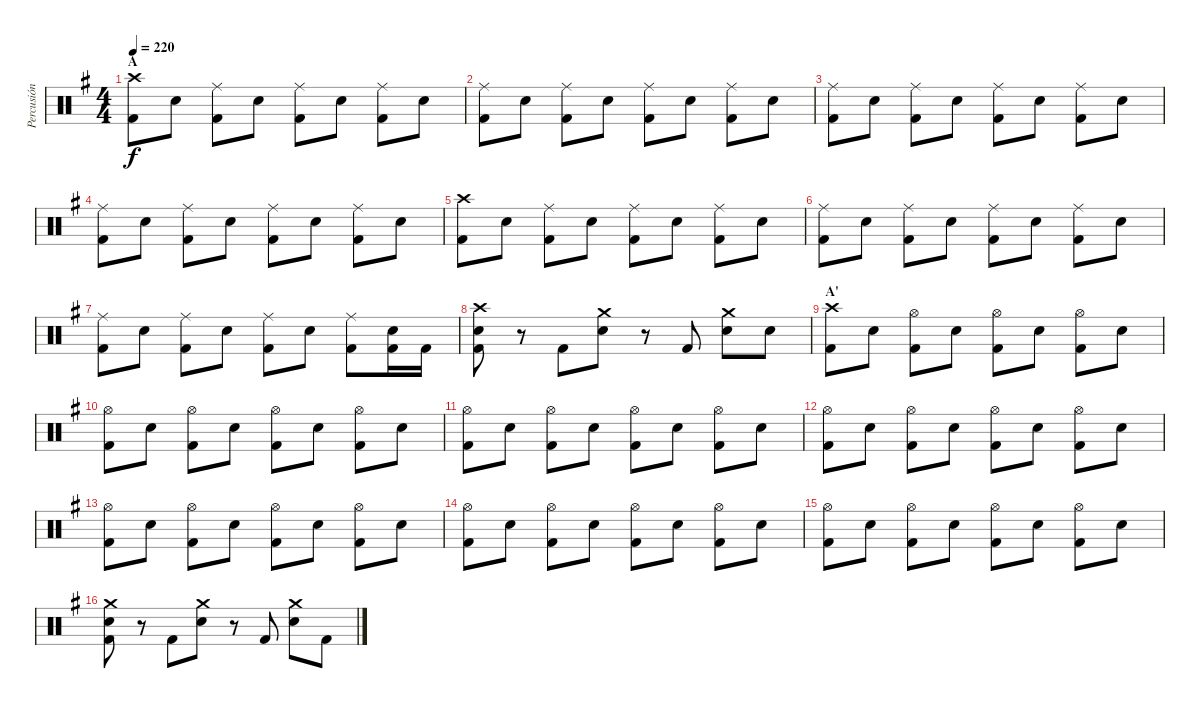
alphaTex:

\track ("Percusión" "Percusión") {instrument percussion}
\staff {score}
\articulation defaults
\ts (4 4)
\section ("" "A")
\tempo 220
\clef neutral
\ks g
("Crash high (hit)" "Kick (hit) 2").8{dy f} "Electric Snare (hit)".8 ("Ride (middle)" "Kick (hit) 2").8 "Electric Snare (hit)".8 ("Ride (middle)" "Kick (hit) 2").8 "Electric Snare (hit)".8 ("Ride (middle)" "Kick (hit) 2").8 "Electric Snare (hit)".8 |
("Ride (middle)" "Kick (hit) 2").8 "Electric Snare (hit)".8 ("Ride (middle)" "Kick (hit) 2").8 "Electric Snare (hit)".8 ("Ride (middle)" "Kick (hit) 2").8 "Electric Snare (hit)".8 ("Ride (middle)" "Kick (hit) 2").8 "Electric Snare (hit)".8 |
("Ride (middle)" "Kick (hit) 2").8 "Electric Snare (hit)".8 ("Ride (middle)" "Kick (hit) 2").8 "Electric Snare (hit)".8 ("Ride (middle)" "Kick (hit) 2").8 "Electric Snare (hit)".8 ("Ride (middle)" "Kick (hit) 2").8 "Electric Snare (hit)".8 |
("Ride (middle)" "Kick (hit) 2").8 "Electric Snare (hit)".8 ("Ride (middle)" "Kick (hit) 2").8 "Electric Snare (hit)".8 ("Ride (middle)" "Kick (hit) 2").8 "Electric Snare (hit)".8 ("Ride (middle)" "Kick (hit) 2").8 "Electric Snare (hit)".8 |
("Crash high (hit)" "Kick (hit) 2").8 "Electric Snare (hit)".8 ("Ride (middle)" "Kick (hit) 2").8 "Electric Snare (hit)".8 ("Ride (middle)" "Kick (hit) 2").8 "Electric Snare (hit)".8 ("Ride (middle)" "Kick (hit) 2").8 "Electric Snare (hit)".8 |
("Ride (middle)" "Kick (hit) 2").8 "Electric Snare (hit)".8 ("Ride (middle)" "Kick (hit) 2").8 "Electric Snare (hit)".8 ("Ride (middle)" "Kick (hit) 2").8 "Electric Snare (hit)".8 ("Ride (middle)" "Kick (hit) 2").8 "Electric Snare (hit)".8 |
("Ride (middle)" "Kick (hit) 2").8 "Electric Snare (hit)".8 ("Ride (middle)" "Kick (hit) 2").8 "Electric Snare (hit)".8 ("Ride (middle)" "Kick (hit) 2").8 "Electric Snare (hit)".8 ("Ride (middle)" "Kick (hit) 2").8 ("Electric Snare (hit)" "Kick (hit) 2").16 "Kick (hit) 2".16 |
("Crash high (hit)" "Electric Snare (hit)" "Kick (hit) 2").8 r.8 "Kick (hit) 2".8 ("Crash medium (hit)" "Electric Snare (hit)").8 r.8 "Kick (hit) 2".8 ("Crash medium (hit)" "Electric Snare (hit)").8 "Electric Snare (hit)".8 |
\section ("" "A'")
("Crash high (hit)" "Kick (hit) 2").8 "Electric Snare (hit)".8 ("Hi-Hat (open)" "Kick (hit) 2").8 "Electric Snare (hit)".8 ("Hi-Hat (open)" "Kick (hit) 2").8 "Electric Snare (hit)".8 ("Hi-Hat (open)" "Kick (hit) 2").8 "Electric Snare (hit)".8 |
("Hi-Hat (open)" "Kick (hit) 2").8 "Electric Snare (hit)".8 ("Hi-Hat (open)" "Kick (hit) 2").8 "Electric Snare (hit)".8 ("Hi-Hat (open)" "Kick (hit) 2").8 "Electric Snare (hit)".8 ("Hi-Hat (open)" "Kick (hit) 2").8 "Electric Snare (hit)".8 |
("Hi-Hat (open)" "Kick (hit) 2").8 "Electric Snare (hit)".8 ("Hi-Hat (open)" "Kick (hit) 2").8 "Electric Snare (hit)".8 ("Hi-Hat (open)" "Kick (hit) 2").8 "Electric Snare (hit)".8 ("Hi-Hat (open)" "Kick (hit) 2").8 "Electric Snare (hit)".8 |
("Hi-Hat (open)" "Kick (hit) 2").8 "Electric Snare (hit)".8 ("Hi-Hat (open)" "Kick (hit) 2").8 "Electric Snare (hit)".8 ("Hi-Hat (open)" "Kick (hit) 2").8 "Electric Snare (hit)".8 ("Hi-Hat (open)" "Kick (hit) 2").8 "Electric Snare (hit)".8 |
("Hi-Hat (open)" "Kick (hit) 2").8 "Electric Snare (hit)".8 ("Hi-Hat (open)" "Kick (hit) 2").8 "Electric Snare (hit)".8 ("Hi-Hat (open)" "Kick (hit) 2").8 "Electric Snare (hit)".8 ("Hi-Hat (open)" "Kick (hit) 2").8 "Electric Snare (hit)".8 |
("Hi-Hat (open)" "Kick (hit) 2").8 "Electric Snare (hit)".8 ("Hi-Hat (open)" "Kick (hit) 2").8 "Electric Snare (hit)".8 ("Hi-Hat (open)" "Kick (hit) 2").8 "Electric Snare (hit)".8 ("Hi-Hat (open)" "Kick (hit) 2").8 "Electric Snare (hit)".8 |
("Hi-Hat (open)" "Kick (hit) 2").8 "Electric Snare (hit)".8 ("Hi-Hat (open)" "Kick (hit) 2").8 "Electric Snare (hit)".8 ("Hi-Hat (open)" "Kick (hit) 2").8 "Electric Snare (hit)".8 ("Hi-Hat (open)" "Kick (hit) 2").8 "Electric Snare (hit)".8 |
("Crash medium (hit)" "Electric Snare (hit)" "Kick (hit) 2").8 r.8 "Kick (hit) 2".8 ("Crash medium (hit)" "Electric Snare (hit)").8 r.8 "Kick (hit) 2".8 ("Crash medium (hit)" "Electric Snare (hit)").8 "Kick (hit) 2".8
